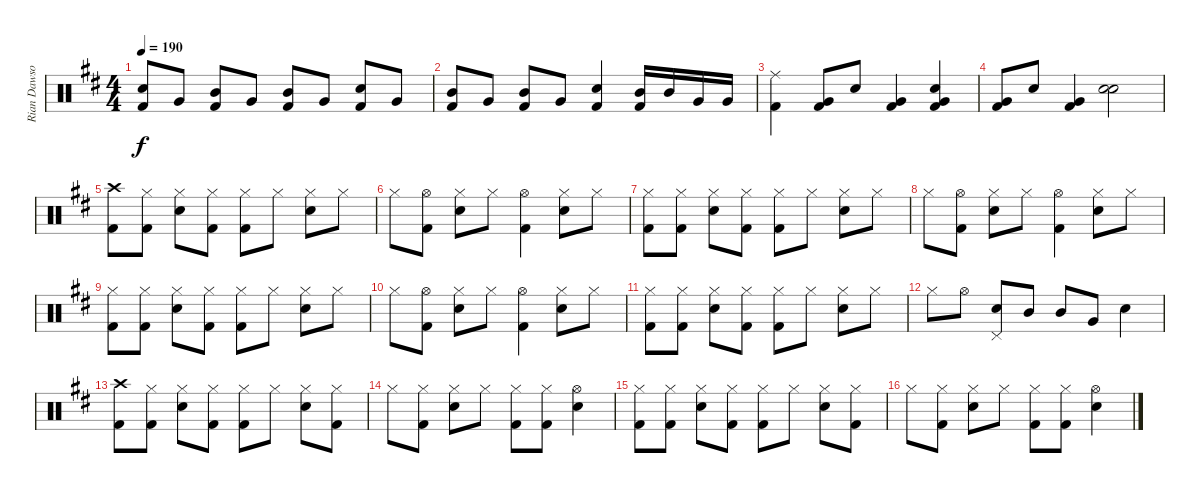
\track ("Rian Dawson" "Rian Dawso") {instrument percussion}
\staff {score}
\articulation defaults
\ts (4 4)
\tempo 190
\clef neutral
\ks d
("Electric Snare (hit)" "Kick (hit) 2").8{dy f} "Very Low Tom (hit)".8 ("Mid Tom (hit)" "Kick (hit) 2").8 "Very Low Tom (hit)".8 ("Mid Tom (hit)" "Kick (hit) 2").8 "Very Low Tom (hit)".8 ("Electric Snare (hit)" "Kick (hit) 2").8 "Very Low Tom (hit)".8 |
("Mid Tom (hit)" "Kick (hit) 2").8 "Very Low Tom (hit)".8 ("Mid Tom (hit)" "Kick (hit) 2").8 "Very Low Tom (hit)".8 ("Electric Snare (hit)" "Kick (hit) 2").4 ("Mid Tom (hit)" "Kick (hit) 2").16 "Mid Tom (hit)".16 "Very Low Tom (hit)".16 "Very Low Tom (hit)".16 |
("Ride (middle)" "Kick (hit) 2").4 ("Very Low Tom (hit)" "Kick (hit) 2").8 "Electric Snare (hit)".8 ("Very Low Tom (hit)" "Kick (hit) 2").4 ("Very Low Tom (hit)" "Electric Snare (hit)" "Kick (hit) 2").4 |
("Very Low Tom (hit)" "Kick (hit) 2").8 "Electric Snare (hit)".8 ("Very Low Tom (hit)" "Kick (hit) 2").4 ("Electric Snare (hit)" "Electric Snare (hit)").2 |
("Crash high (hit)" "Kick (hit) 2").8 ("Hi-Hat (closed)" "Kick (hit) 2").8 ("Hi-Hat (closed)" "Electric Snare (hit)").8 ("Hi-Hat (closed)" "Kick (hit) 2").8 ("Hi-Hat (closed)" "Kick (hit) 2").8 "Hi-Hat (closed)".8 ("Hi-Hat (closed)" "Electric Snare (hit)").8 "Hi-Hat (closed)".8 |
"Hi-Hat (closed)".8 ("Hi-Hat (open)" "Kick (hit) 2").8 ("Hi-Hat (closed)" "Electric Snare (hit)").8 "Hi-Hat (closed)".8 ("Hi-Hat (open)" "Kick (hit) 2").4 ("Hi-Hat (closed)" "Electric Snare (hit)").8 "Hi-Hat (closed)".8 |
("Hi-Hat (closed)" "Kick (hit) 2").8 ("Hi-Hat (closed)" "Kick (hit) 2").8 ("Hi-Hat (closed)" "Electric Snare (hit)").8 ("Hi-Hat (closed)" "Kick (hit) 2").8 ("Hi-Hat (closed)" "Kick (hit) 2").8 "Hi-Hat (closed)".8 ("Hi-Hat (closed)" "Electric Snare (hit)").8 "Hi-Hat (closed)".8 |
"Hi-Hat (closed)".8 ("Hi-Hat (open)" "Kick (hit) 2").8 ("Hi-Hat (closed)" "Electric Snare (hit)").8 "Hi-Hat (closed)".8 ("Hi-Hat (open)" "Kick (hit) 2").4 ("Hi-Hat (closed)" "Electric Snare (hit)").8 "Hi-Hat (closed)".8 |
("Hi-Hat (closed)" "Kick (hit) 2").8 ("Hi-Hat (closed)" "Kick (hit) 2").8 ("Hi-Hat (closed)" "Electric Snare (hit)").8 ("Hi-Hat (closed)" "Kick (hit) 2").8 ("Hi-Hat (closed)" "Kick (hit) 2").8 "Hi-Hat (closed)".8 ("Hi-Hat (closed)" "Electric Snare (hit)").8 "Hi-Hat (closed)".8 |
"Hi-Hat (closed)".8 ("Hi-Hat (open)" "Kick (hit) 2").8 ("Hi-Hat (closed)" "Electric Snare (hit)").8 "Hi-Hat (closed)".8 ("Hi-Hat (open)" "Kick (hit) 2").4 ("Hi-Hat (closed)" "Electric Snare (hit)").8 "Hi-Hat (closed)".8 |
("Hi-Hat (closed)" "Kick (hit) 2").8 ("Hi-Hat (closed)" "Kick (hit) 2").8 ("Hi-Hat (closed)" "Electric Snare (hit)").8 ("Hi-Hat (closed)" "Kick (hit) 2").8 ("Hi-Hat (closed)" "Kick (hit) 2").8 "Hi-Hat (closed)".8 ("Hi-Hat (closed)" "Electric Snare (hit)").8 "Hi-Hat (closed)".8 |
"Hi-Hat (closed)".8 "Hi-Hat (open)".8 ("Pedal Hi-Hat (hit)" "Electric Snare (hit)").8 "Mid Tom (hit)".8 "Mid Tom (hit)".8 "Very Low Tom (hit)".8 "Electric Snare (hit)".4 |
("Crash high (hit)" "Kick (hit) 2").8 ("Hi-Hat (closed)" "Kick (hit) 2").8 ("Hi-Hat (closed)" "Electric Snare (hit)").8 ("Hi-Hat (closed)" "Kick (hit) 2").8 ("Hi-Hat (closed)" "Kick (hit) 2").8 "Hi-Hat (closed)".8 ("Hi-Hat (closed)" "Electric Snare (hit)").8 ("Hi-Hat (closed)" "Kick (hit) 2").8 |
"Hi-Hat (closed)".8 ("Hi-Hat (closed)" "Kick (hit) 2").8 ("Hi-Hat (closed)" "Electric Snare (hit)").8 "Hi-Hat (closed)".8 ("Hi-Hat (closed)" "Kick (hit) 2").8 ("Hi-Hat (closed)" "Kick (hit) 2").8 ("Hi-Hat (open)" "Electric Snare (hit)").4 |
("Hi-Hat (closed)" "Kick (hit) 2").8 ("Hi-Hat (closed)" "Kick (hit) 2").8 ("Hi-Hat (closed)" "Electric Snare (hit)").8 ("Hi-Hat (closed)" "Kick (hit) 2").8 ("Hi-Hat (closed)" "Kick (hit) 2").8 "Hi-Hat (closed)".8 ("Hi-Hat (closed)" "Electric Snare (hit)").8 ("Hi-Hat (closed)" "Kick (hit) 2").8 |
"Hi-Hat (closed)".8 ("Hi-Hat (closed)" "Kick (hit) 2").8 ("Hi-Hat (closed)" "Electric Snare (hit)").8 "Hi-Hat (closed)".8 ("Hi-Hat (closed)" "Kick (hit) 2").8 ("Hi-Hat (closed)" "Kick (hit) 2").8 ("Hi-Hat (open)" "Electric Snare (hit)").4
